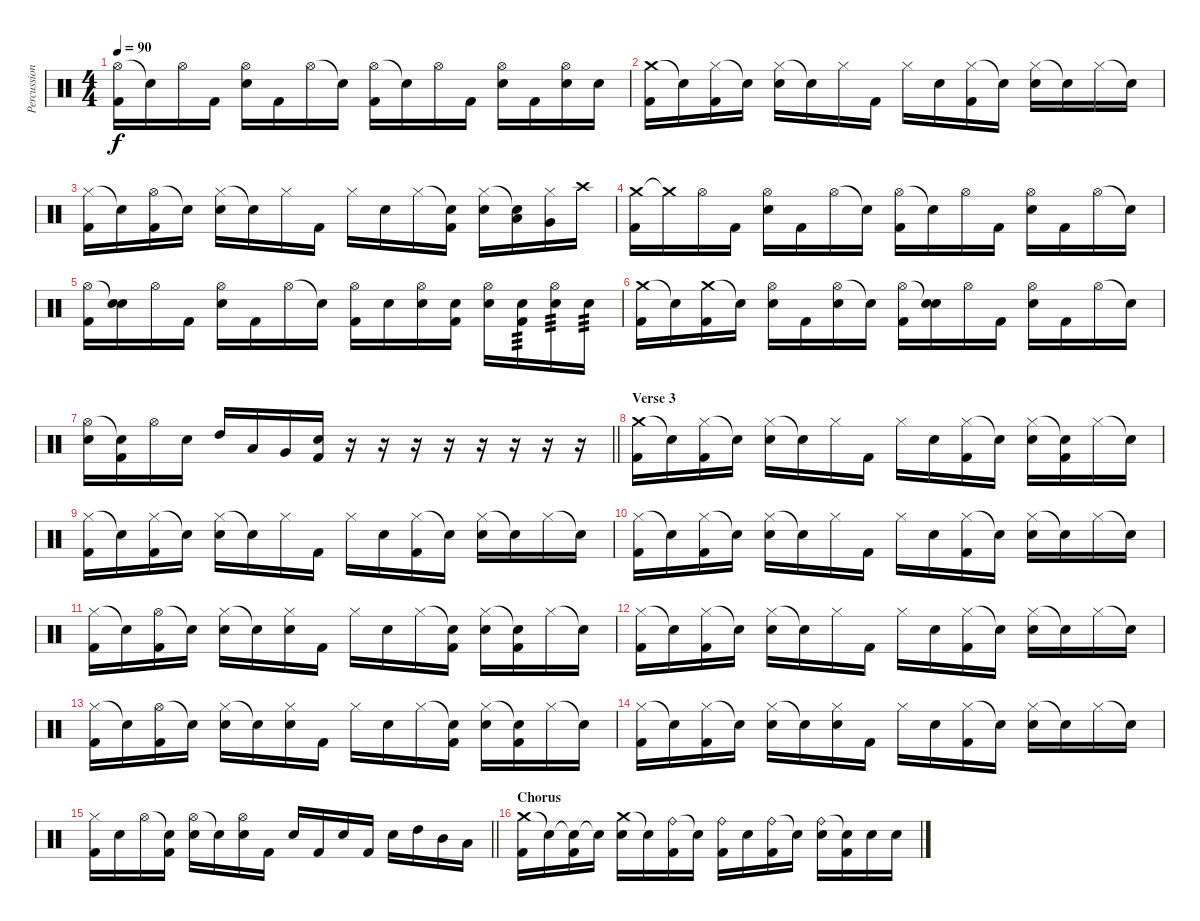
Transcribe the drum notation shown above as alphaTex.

\track ("Percussion" "Percussion") {instrument percussion}
\staff {score}
\articulation defaults
\ts (4 4)
\tempo 90
\clef neutral
\ks c
("Hi-Hat (open)" "Kick (hit) 2").16{dy f} "Snare (hit)"{t}.16 "Hi-Hat (open)".16 "Kick (hit) 2".16 ("Hi-Hat (open)" "Snare (hit) 2").16 "Kick (hit) 2".16 "Hi-Hat (open)".16 "Snare (hit)"{t}.16 ("Hi-Hat (open)" "Kick (hit) 2").16 "Snare (hit)"{t}.16 "Hi-Hat (open)".16 "Kick (hit) 2".16 ("Hi-Hat (open)" "Snare (hit) 2").16 "Kick (hit) 2".16 ("Hi-Hat (open)" "Snare (hit) 2").16 "Snare (hit) 2".16 |
("Crash medium (hit)" "Kick (hit) 2").16 "Snare (hit)"{t}.16 ("Hi-Hat (closed)" "Kick (hit) 2").16 "Snare (hit)"{t}.16 ("Hi-Hat (closed)" "Snare (hit) 2").16 "Snare (hit)"{t}.16 "Hi-Hat (closed)".16 "Kick (hit) 2".16 "Hi-Hat (closed)".16 "Snare (hit) 2".16 ("Hi-Hat (closed)" "Kick (hit) 2").16 "Snare (hit)"{t}.16 ("Hi-Hat (closed)" "Snare (hit) 2").16 "Snare (hit)"{t}.16 "Hi-Hat (closed)".16 "Snare (hit)"{t}.16 |
("Hi-Hat (closed)" "Kick (hit) 2").16 "Snare (hit)"{t}.16 ("Hi-Hat (open)" "Kick (hit) 2").16 "Snare (hit)"{t}.16 ("Hi-Hat (closed)" "Snare (hit) 2").16 "Snare (hit)"{t}.16 "Hi-Hat (closed)".16 "Kick (hit) 2".16 "Hi-Hat (closed)".16 "Snare (hit) 2".16 "Hi-Hat (closed)".16 ("Snare (hit)"{t} "Kick (hit) 2").16 ("Hi-Hat (closed)" "Snare (hit) 2").16 ("Snare (hit)"{t} "Low Tom (hit)").16 ("Hi-Hat (closed)" "Very Low Tom (hit)").16 "Crash high (hit)".16 |
("Crash medium (hit)" "Kick (hit) 2").16 "Crash medium (hit)"{t}.16 "Hi-Hat (open)".16 "Kick (hit) 2".16 ("Hi-Hat (open)" "Snare (hit) 2").16 "Kick (hit) 2".16 "Hi-Hat (open)".16 "Snare (hit)"{t}.16 ("Hi-Hat (open)" "Kick (hit) 2").16 "Snare (hit)"{t}.16 "Hi-Hat (open)".16 "Kick (hit) 2".16 ("Hi-Hat (open)" "Snare (hit) 2").16 "Kick (hit) 2".16 "Hi-Hat (open)".16 "Snare (hit)"{t}.16 |
("Hi-Hat (open)" "Kick (hit) 2").16 ("Snare (hit)"{t} "Snare (hit) 2").16 "Hi-Hat (open)".16 "Kick (hit) 2".16 ("Hi-Hat (open)" "Snare (hit) 2").16 "Kick (hit) 2".16 "Hi-Hat (open)".16 "Snare (hit)"{t}.16 ("Hi-Hat (open)" "Kick (hit) 2").16 "Snare (hit) 2".16 ("Hi-Hat (open)" "Snare (hit) 2").16 ("Snare (hit) 2" "Kick (hit) 2").16 ("Hi-Hat (open)" "Snare (hit) 2").16 ("Snare (hit) 2" "Kick (hit) 2").16{tp 3} ("Hi-Hat (open)" "Snare (hit) 2").16{tp 3} "Snare (hit) 2".16{tp 3} |
("Crash medium (hit)" "Kick (hit) 2").16 "Snare (hit)"{t}.16 ("Crash medium (hit)" "Kick (hit) 2").16 "Snare (hit)"{t}.16 ("Hi-Hat (open)" "Snare (hit) 2").16 "Kick (hit) 2".16 ("Hi-Hat (open)" "Snare (hit) 2").16 "Snare (hit)"{t}.16 ("Hi-Hat (open)" "Kick (hit) 2").16 ("Snare (hit)"{t} "Snare (hit) 2").16 "Hi-Hat (open)".16 "Kick (hit) 2".16 ("Hi-Hat (open)" "Snare (hit) 2").16 "Kick (hit) 2".16 "Hi-Hat (open)".16 "Snare (hit)"{t}.16 |
\barLineRight lightlight
("Hi-Hat (open)" "Snare (hit) 2").16 ("Snare (hit)"{t} "Kick (hit) 2").16 "Hi-Hat (open)".16 "Snare (hit) 2".16 "High Tom (hit)".16 "Low Tom (hit)".16 "Very Low Tom (hit)".16 ("Snare (hit) 2" "Kick (hit) 2").16 r.16 r.16 r.16 r.16 r.16 r.16 r.16 r.16 |
\section ("" "Verse 3")
("Crash medium (hit)" "Kick (hit) 2").16 "Snare (hit)"{t}.16 ("Hi-Hat (closed)" "Kick (hit) 2").16 "Snare (hit)"{t}.16 ("Hi-Hat (closed)" "Snare (hit) 2").16 "Snare (hit)"{t}.16 "Hi-Hat (closed)".16 "Kick (hit) 2".16 "Hi-Hat (closed)".16 "Snare (hit) 2".16 ("Hi-Hat (closed)" "Kick (hit) 2").16 "Snare (hit)"{t}.16 ("Hi-Hat (closed)" "Snare (hit) 2").16 ("Snare (hit)"{t} "Kick (hit) 2").16 "Hi-Hat (closed)".16 "Snare (hit)"{t}.16 |
("Hi-Hat (closed)" "Kick (hit) 2").16 "Snare (hit)"{t}.16 ("Hi-Hat (closed)" "Kick (hit) 2").16 "Snare (hit)"{t}.16 ("Hi-Hat (closed)" "Snare (hit) 2").16 "Snare (hit)"{t}.16 "Hi-Hat (closed)".16 "Kick (hit) 2".16 "Hi-Hat (closed)".16 "Snare (hit) 2".16 ("Hi-Hat (closed)" "Kick (hit) 2").16 "Snare (hit)"{t}.16 ("Hi-Hat (closed)" "Snare (hit) 2").16 "Snare (hit)"{t}.16 "Hi-Hat (closed)".16 "Snare (hit)"{t}.16 |
("Hi-Hat (closed)" "Kick (hit) 2").16 "Snare (hit)"{t}.16 ("Hi-Hat (closed)" "Kick (hit) 2").16 "Snare (hit)"{t}.16 ("Hi-Hat (closed)" "Snare (hit) 2").16 "Snare (hit)"{t}.16 "Hi-Hat (closed)".16 "Kick (hit) 2".16 "Hi-Hat (closed)".16 "Snare (hit) 2".16 ("Hi-Hat (closed)" "Kick (hit) 2").16 "Snare (hit)"{t}.16 ("Hi-Hat (closed)" "Snare (hit) 2").16 "Snare (hit)"{t}.16 "Hi-Hat (closed)".16 "Snare (hit)"{t}.16 |
("Hi-Hat (closed)" "Kick (hit) 2").16 "Snare (hit)"{t}.16 ("Hi-Hat (open)" "Kick (hit) 2").16 "Snare (hit)"{t}.16 ("Hi-Hat (closed)" "Snare (hit) 2").16 "Snare (hit)"{t}.16 ("Hi-Hat (closed)" "Snare (hit) 2").16 "Kick (hit) 2".16 "Hi-Hat (closed)".16 "Snare (hit) 2".16 "Hi-Hat (closed)".16 ("Snare (hit)"{t} "Kick (hit) 2").16 ("Hi-Hat (closed)" "Snare (hit) 2").16 ("Snare (hit)"{t} "Kick (hit) 2").16 "Hi-Hat (closed)".16 "Snare (hit)"{t}.16 |
("Hi-Hat (closed)" "Kick (hit) 2").16 "Snare (hit)"{t}.16 ("Hi-Hat (closed)" "Kick (hit) 2").16 "Snare (hit)"{t}.16 ("Hi-Hat (closed)" "Snare (hit) 2").16 "Snare (hit)"{t}.16 "Hi-Hat (closed)".16 "Kick (hit) 2".16 "Hi-Hat (closed)".16 "Snare (hit) 2".16 ("Hi-Hat (closed)" "Kick (hit) 2").16 "Snare (hit)"{t}.16 ("Hi-Hat (closed)" "Snare (hit) 2").16 "Snare (hit)"{t}.16 "Hi-Hat (closed)".16 "Snare (hit)"{t}.16 |
("Hi-Hat (closed)" "Kick (hit) 2").16 "Snare (hit)"{t}.16 ("Hi-Hat (open)" "Kick (hit) 2").16 "Snare (hit)"{t}.16 ("Hi-Hat (closed)" "Snare (hit) 2").16 "Snare (hit)"{t}.16 ("Hi-Hat (closed)" "Snare (hit) 2").16 "Kick (hit) 2".16 "Hi-Hat (closed)".16 "Snare (hit) 2".16 "Hi-Hat (closed)".16 ("Snare (hit)"{t} "Kick (hit) 2").16 ("Hi-Hat (closed)" "Snare (hit) 2").16 ("Snare (hit)"{t} "Kick (hit) 2").16 "Hi-Hat (closed)".16 "Snare (hit)"{t}.16 |
("Hi-Hat (closed)" "Kick (hit) 2").16 "Snare (hit)"{t}.16 ("Hi-Hat (closed)" "Kick (hit) 2").16 "Snare (hit)"{t}.16 ("Hi-Hat (closed)" "Snare (hit) 2").16 "Snare (hit)"{t}.16 ("Hi-Hat (closed)" "Snare (hit) 2").16 "Kick (hit) 2".16 "Hi-Hat (closed)".16 "Snare (hit) 2".16 ("Hi-Hat (closed)" "Kick (hit) 2").16 "Snare (hit)"{t}.16 ("Hi-Hat (closed)" "Snare (hit) 2").16 "Snare (hit)"{t}.16 "Hi-Hat (closed)".16 "Snare (hit)"{t}.16 |
\barLineRight lightlight
("Hi-Hat (closed)" "Kick (hit) 2").16 "Snare (hit) 2".16 "Hi-Hat (open)".16 ("Snare (hit)"{t} "Kick (hit) 2").16 ("Hi-Hat (open)" "Snare (hit) 2").16 "Snare (hit)"{t}.16 ("Hi-Hat (open)" "Snare (hit) 2").16 "Kick (hit) 2".16 "Snare (hit) 2".16 "Kick (hit) 2".16 "Snare (hit) 2".16 "Kick (hit) 2".16 "Snare (hit) 2".16 "High Tom (hit)".16 "Mid Tom (hit)".16 "Low Tom (hit)".16 |
\section ("" "Chorus")
("Crash medium (hit)" "Kick (hit) 2").16 "Snare (hit)"{t}.16 ("Snare (hit)"{t} "Kick (hit) 2").16 "Snare (hit)"{t}.16 ("Crash medium (hit)" "Snare (hit) 2").16 "Snare (hit)"{t}.16 ("Ride (bell)" "Kick (hit) 2").16 "Snare (hit)"{t}.16 ("Ride (bell)" "Kick (hit) 2").16 "Snare (hit) 2".16 ("Ride (bell)" "Kick (hit) 2").16 "Snare (hit)"{t}.16 ("Ride (bell)" "Snare (hit) 2").16 ("Snare (hit)"{t} "Kick (hit) 2").16 "Snare (hit) 2".16 "Snare (hit) 2".16
